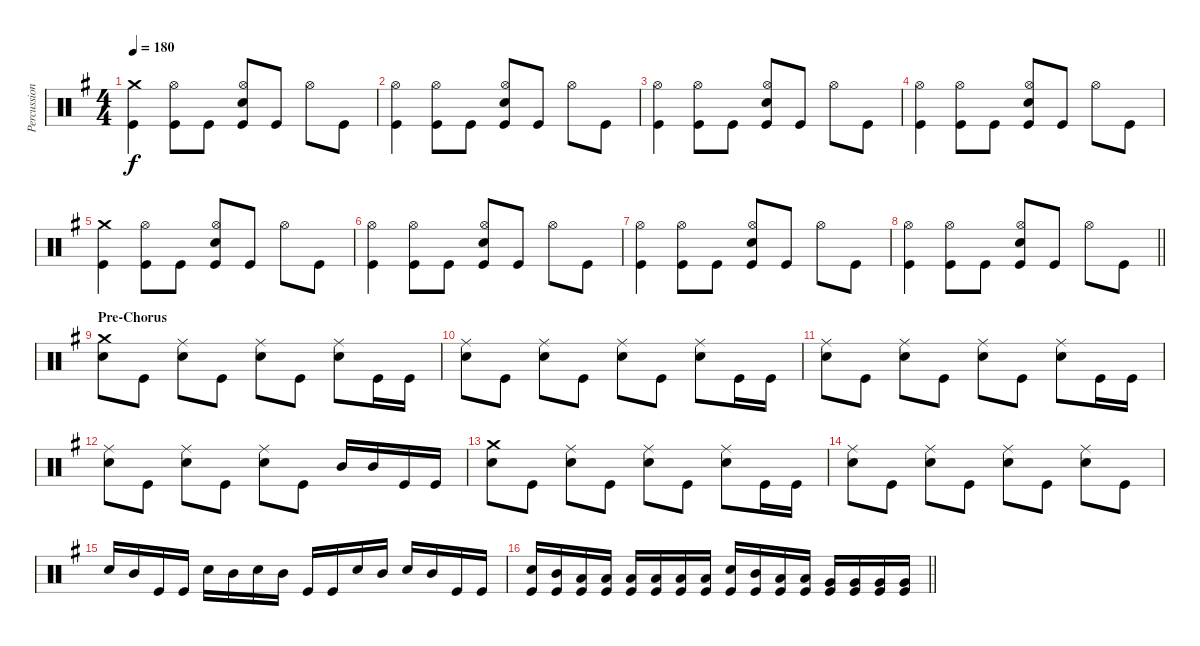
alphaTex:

\track ("Percussion" "Percussion") {instrument percussion}
\staff {score}
\articulation defaults
\ts (4 4)
\tempo 180
\clef neutral
\ks g
("Crash medium (hit)" "Kick (hit)").4{dy f} ("Hi-Hat (open)" "Kick (hit)").8 "Kick (hit)".8 ("Hi-Hat (open)" "Electric Snare (hit)" "Kick (hit)").8 "Kick (hit)".8 "Hi-Hat (open)".8 "Kick (hit)".8 |
("Hi-Hat (open)" "Kick (hit)").4 ("Hi-Hat (open)" "Kick (hit)").8 "Kick (hit)".8 ("Hi-Hat (open)" "Electric Snare (hit)" "Kick (hit)").8 "Kick (hit)".8 "Hi-Hat (open)".8 "Kick (hit)".8 |
("Hi-Hat (open)" "Kick (hit)").4 ("Hi-Hat (open)" "Kick (hit)").8 "Kick (hit)".8 ("Hi-Hat (open)" "Electric Snare (hit)" "Kick (hit)").8 "Kick (hit)".8 "Hi-Hat (open)".8 "Kick (hit)".8 |
("Hi-Hat (open)" "Kick (hit)").4 ("Hi-Hat (open)" "Kick (hit)").8 "Kick (hit)".8 ("Hi-Hat (open)" "Electric Snare (hit)" "Kick (hit)").8 "Kick (hit)".8 "Hi-Hat (open)".8 "Kick (hit)".8 |
("Crash medium (hit)" "Kick (hit)").4 ("Hi-Hat (open)" "Kick (hit)").8 "Kick (hit)".8 ("Hi-Hat (open)" "Electric Snare (hit)" "Kick (hit)").8 "Kick (hit)".8 "Hi-Hat (open)".8 "Kick (hit)".8 |
("Hi-Hat (open)" "Kick (hit)").4 ("Hi-Hat (open)" "Kick (hit)").8 "Kick (hit)".8 ("Hi-Hat (open)" "Electric Snare (hit)" "Kick (hit)").8 "Kick (hit)".8 "Hi-Hat (open)".8 "Kick (hit)".8 |
("Hi-Hat (open)" "Kick (hit)").4 ("Hi-Hat (open)" "Kick (hit)").8 "Kick (hit)".8 ("Hi-Hat (open)" "Electric Snare (hit)" "Kick (hit)").8 "Kick (hit)".8 "Hi-Hat (open)".8 "Kick (hit)".8 |
\barLineRight lightlight
("Hi-Hat (open)" "Kick (hit)").4 ("Hi-Hat (open)" "Kick (hit)").8 "Kick (hit)".8 ("Hi-Hat (open)" "Electric Snare (hit)" "Kick (hit)").8 "Kick (hit)".8 "Hi-Hat (open)".8 "Kick (hit)".8 |
\section ("" "Pre-Chorus")
("Crash medium (hit)" "Electric Snare (hit)").8 "Kick (hit)".8 ("Ride (middle)" "Electric Snare (hit)").8 "Kick (hit)".8 ("Ride (middle)" "Electric Snare (hit)").8 "Kick (hit)".8 ("Ride (middle)" "Electric Snare (hit)").8 "Kick (hit)".16 "Kick (hit)".16 |
("Ride (middle)" "Electric Snare (hit)").8 "Kick (hit)".8 ("Ride (middle)" "Electric Snare (hit)").8 "Kick (hit)".8 ("Ride (middle)" "Electric Snare (hit)").8 "Kick (hit)".8 ("Ride (middle)" "Electric Snare (hit)").8 "Kick (hit)".16 "Kick (hit)".16 |
("Ride (middle)" "Electric Snare (hit)").8 "Kick (hit)".8 ("Ride (middle)" "Electric Snare (hit)").8 "Kick (hit)".8 ("Ride (middle)" "Electric Snare (hit)").8 "Kick (hit)".8 ("Ride (middle)" "Electric Snare (hit)").8 "Kick (hit)".16 "Kick (hit)".16 |
("Ride (middle)" "Electric Snare (hit)").8 "Kick (hit)".8 ("Ride (middle)" "Electric Snare (hit)").8 "Kick (hit)".8 ("Ride (middle)" "Electric Snare (hit)").8 "Kick (hit)".8 "Mid Tom (hit)".16 "Mid Tom (hit)".16 "Kick (hit)".16 "Kick (hit)".16 |
("Crash medium (hit)" "Electric Snare (hit)").8 "Kick (hit)".8 ("Ride (middle)" "Electric Snare (hit)").8 "Kick (hit)".8 ("Ride (middle)" "Electric Snare (hit)").8 "Kick (hit)".8 ("Ride (middle)" "Electric Snare (hit)").8 "Kick (hit)".16 "Kick (hit)".16 |
("Ride (middle)" "Electric Snare (hit)").8 "Kick (hit)".8 ("Ride (middle)" "Electric Snare (hit)").8 "Kick (hit)".8 ("Ride (middle)" "Electric Snare (hit)").8 "Kick (hit)".8 ("Ride (middle)" "Electric Snare (hit)").8 "Kick (hit)".8 |
"Electric Snare (hit)".16 "Mid Tom (hit)".16 "Kick (hit)".16 "Kick (hit)".16 "Electric Snare (hit)".16 "Mid Tom (hit)".16 "Electric Snare (hit)".16 "Mid Tom (hit)".16 "Kick (hit)".16 "Kick (hit)".16 "Electric Snare (hit)".16 "Mid Tom (hit)".16 "Electric Snare (hit)".16 "Mid Tom (hit)".16 "Kick (hit)".16 "Kick (hit)".16 |
\barLineRight lightlight
("Electric Snare (hit)" "Kick (hit)").16 ("Mid Tom (hit)" "Kick (hit)").16 ("Low Tom (hit)" "Kick (hit)").16 ("Low Tom (hit)" "Kick (hit)").16 ("Low Tom (hit)" "Kick (hit)").16 ("Low Tom (hit)" "Kick (hit)").16 ("Low Tom (hit)" "Kick (hit)").16 ("Low Tom (hit)" "Kick (hit)").16 ("Electric Snare (hit)" "Kick (hit)").16 ("Mid Tom (hit)" "Kick (hit)").16 ("Low Tom (hit)" "Kick (hit)").16 ("Low Tom (hit)" "Kick (hit)").16 ("Very Low Tom (hit)" "Kick (hit)").16 ("Very Low Tom (hit)" "Kick (hit)").16 ("Very Low Tom (hit)" "Kick (hit)").16 ("Very Low Tom (hit)" "Kick (hit)").16
